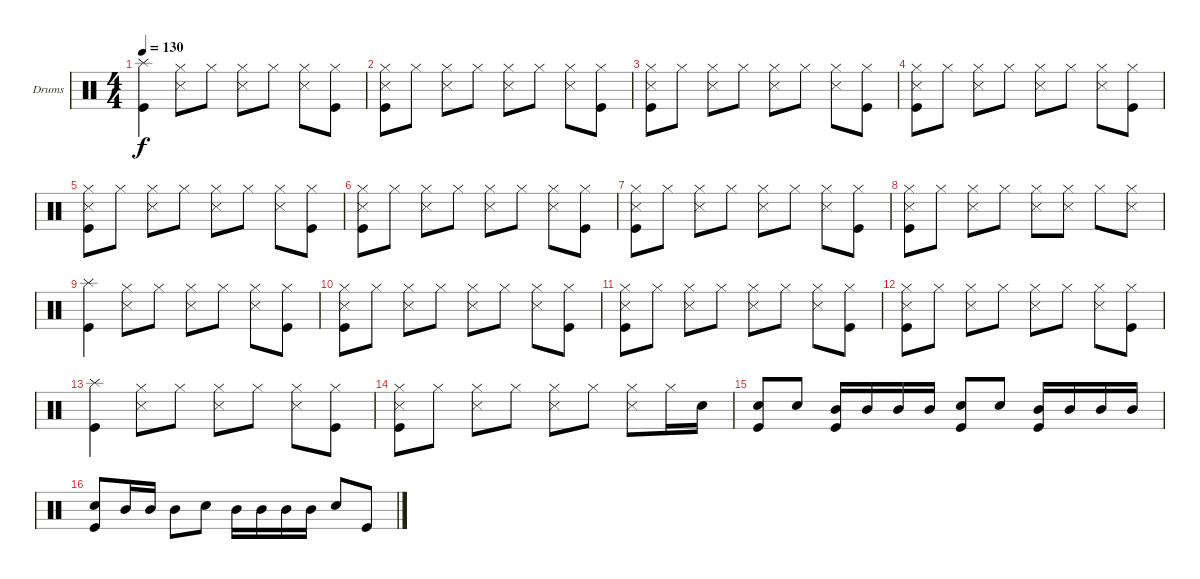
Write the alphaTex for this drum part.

\defaultSystemsLayout 4
\bracketExtendMode groupsimilarinstruments
\firstSystemTrackNameOrientation horizontal
\otherSystemsTrackNameOrientation horizontal
\track ("Inazawa" "Drums") {instrument percussion}
\staff {score}
\articulation defaults
\ts (4 4)
\tempo 130
\clef neutral
\ks c
("Kick (hit)" "Splash (hit)").4{dy f} ("Hi-Hat (closed)" "Snare (side stick) 3").8 "Hi-Hat (closed)".8 ("Hi-Hat (closed)" "Snare (side stick) 3").8 "Hi-Hat (closed)".8 ("Hi-Hat (closed)" "Snare (side stick) 3").8 ("Hi-Hat (closed)" "Kick (hit)").8 |
("Kick (hit)" "Snare (side stick) 3" "Hi-Hat (closed)").8 "Hi-Hat (closed)".8 ("Hi-Hat (closed)" "Snare (side stick) 3").8 "Hi-Hat (closed)".8 ("Hi-Hat (closed)" "Snare (side stick) 3").8 "Hi-Hat (closed)".8 ("Hi-Hat (closed)" "Snare (side stick) 3").8 ("Hi-Hat (closed)" "Kick (hit)").8 |
("Kick (hit)" "Snare (side stick) 3" "Hi-Hat (closed)").8 "Hi-Hat (closed)".8 ("Hi-Hat (closed)" "Snare (side stick) 3").8 "Hi-Hat (closed)".8 ("Hi-Hat (closed)" "Snare (side stick) 3").8 "Hi-Hat (closed)".8 ("Hi-Hat (closed)" "Snare (side stick) 3").8 ("Hi-Hat (closed)" "Kick (hit)").8 |
("Kick (hit)" "Snare (side stick) 3" "Hi-Hat (closed)").8 "Hi-Hat (closed)".8 ("Hi-Hat (closed)" "Snare (side stick) 3").8 "Hi-Hat (closed)".8 ("Hi-Hat (closed)" "Snare (side stick) 3").8 "Hi-Hat (closed)".8 ("Hi-Hat (closed)" "Snare (side stick) 3").8 ("Hi-Hat (closed)" "Kick (hit)").8 |
("Kick (hit)" "Snare (side stick) 3" "Hi-Hat (closed)").8 "Hi-Hat (closed)".8 ("Hi-Hat (closed)" "Snare (side stick) 3").8 "Hi-Hat (closed)".8 ("Hi-Hat (closed)" "Snare (side stick) 3").8 "Hi-Hat (closed)".8 ("Hi-Hat (closed)" "Snare (side stick) 3").8 ("Hi-Hat (closed)" "Kick (hit)").8 |
("Kick (hit)" "Snare (side stick) 3" "Hi-Hat (closed)").8 "Hi-Hat (closed)".8 ("Hi-Hat (closed)" "Snare (side stick) 3").8 "Hi-Hat (closed)".8 ("Hi-Hat (closed)" "Snare (side stick) 3").8 "Hi-Hat (closed)".8 ("Hi-Hat (closed)" "Snare (side stick) 3").8 ("Hi-Hat (closed)" "Kick (hit)").8 |
("Kick (hit)" "Snare (side stick) 3" "Hi-Hat (closed)").8 "Hi-Hat (closed)".8 ("Hi-Hat (closed)" "Snare (side stick) 3").8 "Hi-Hat (closed)".8 ("Hi-Hat (closed)" "Snare (side stick) 3").8 "Hi-Hat (closed)".8 ("Hi-Hat (closed)" "Snare (side stick) 3").8 ("Hi-Hat (closed)" "Kick (hit)").8 |
("Kick (hit)" "Snare (side stick) 3" "Hi-Hat (closed)").8 "Hi-Hat (closed)".8 ("Hi-Hat (closed)" "Snare (side stick) 3").8 "Hi-Hat (closed)".8 ("Hi-Hat (closed)" "Snare (side stick) 3").8 ("Hi-Hat (closed)" "Snare (side stick) 3").8 "Hi-Hat (closed)".8 ("Hi-Hat (closed)" "Snare (side stick) 3").8 |
("Kick (hit)" "Splash (hit)").4 ("Hi-Hat (closed)" "Snare (side stick) 3").8 "Hi-Hat (closed)".8 ("Hi-Hat (closed)" "Snare (side stick) 3").8 "Hi-Hat (closed)".8 ("Hi-Hat (closed)" "Snare (side stick) 3").8 ("Hi-Hat (closed)" "Kick (hit)").8 |
("Kick (hit)" "Snare (side stick) 3" "Hi-Hat (closed)").8 "Hi-Hat (closed)".8 ("Hi-Hat (closed)" "Snare (side stick) 3").8 "Hi-Hat (closed)".8 ("Hi-Hat (closed)" "Snare (side stick) 3").8 "Hi-Hat (closed)".8 ("Hi-Hat (closed)" "Snare (side stick) 3").8 ("Hi-Hat (closed)" "Kick (hit)").8 |
("Kick (hit)" "Snare (side stick) 3" "Hi-Hat (closed)").8 "Hi-Hat (closed)".8 ("Hi-Hat (closed)" "Snare (side stick) 3").8 "Hi-Hat (closed)".8 ("Hi-Hat (closed)" "Snare (side stick) 3").8 "Hi-Hat (closed)".8 ("Hi-Hat (closed)" "Snare (side stick) 3").8 ("Hi-Hat (closed)" "Kick (hit)").8 |
("Kick (hit)" "Snare (side stick) 3" "Hi-Hat (closed)").8 "Hi-Hat (closed)".8 ("Hi-Hat (closed)" "Snare (side stick) 3").8 "Hi-Hat (closed)".8 ("Hi-Hat (closed)" "Snare (side stick) 3").8 "Hi-Hat (closed)".8 ("Hi-Hat (closed)" "Snare (side stick) 3").8 ("Hi-Hat (closed)" "Kick (hit)").8 |
("Kick (hit)" "Splash (hit)").4 ("Hi-Hat (closed)" "Snare (side stick) 3").8 "Hi-Hat (closed)".8 ("Hi-Hat (closed)" "Snare (side stick) 3").8 "Hi-Hat (closed)".8 ("Hi-Hat (closed)" "Snare (side stick) 3").8 ("Hi-Hat (closed)" "Kick (hit)").8 |
("Kick (hit)" "Snare (side stick) 3" "Hi-Hat (closed)").8 "Hi-Hat (closed)".8 ("Hi-Hat (closed)" "Snare (side stick) 3").8 "Hi-Hat (closed)".8 ("Hi-Hat (closed)" "Snare (side stick) 3").8 "Hi-Hat (closed)".8 ("Hi-Hat (closed)" "Snare (side stick) 3").8 "Hi-Hat (closed)".16 "Snare (hit) 2".16 |
("Snare (hit) 2" "Kick (hit)").8 "Snare (hit) 2".8 ("Mid Tom (hit)" "Kick (hit)").16 "Mid Tom (hit)".16 "Mid Tom (hit)".16 "Mid Tom (hit)".16 ("Snare (hit) 2" "Kick (hit)").8 "Snare (hit) 2".8 ("Mid Tom (hit)" "Kick (hit)").16 "Mid Tom (hit)".16 "Mid Tom (hit)".16 "Mid Tom (hit)".16 |
("Snare (hit) 2" "Kick (hit)").8 "Mid Tom (hit)".16 "Mid Tom (hit)".16 "Mid Tom (hit)".8 "Snare (hit) 2".8 "Mid Tom (hit)".16 "Mid Tom (hit)".16 "Mid Tom (hit)".16 "Mid Tom (hit)".16 "Snare (hit) 2".8 "Kick (hit)".8
